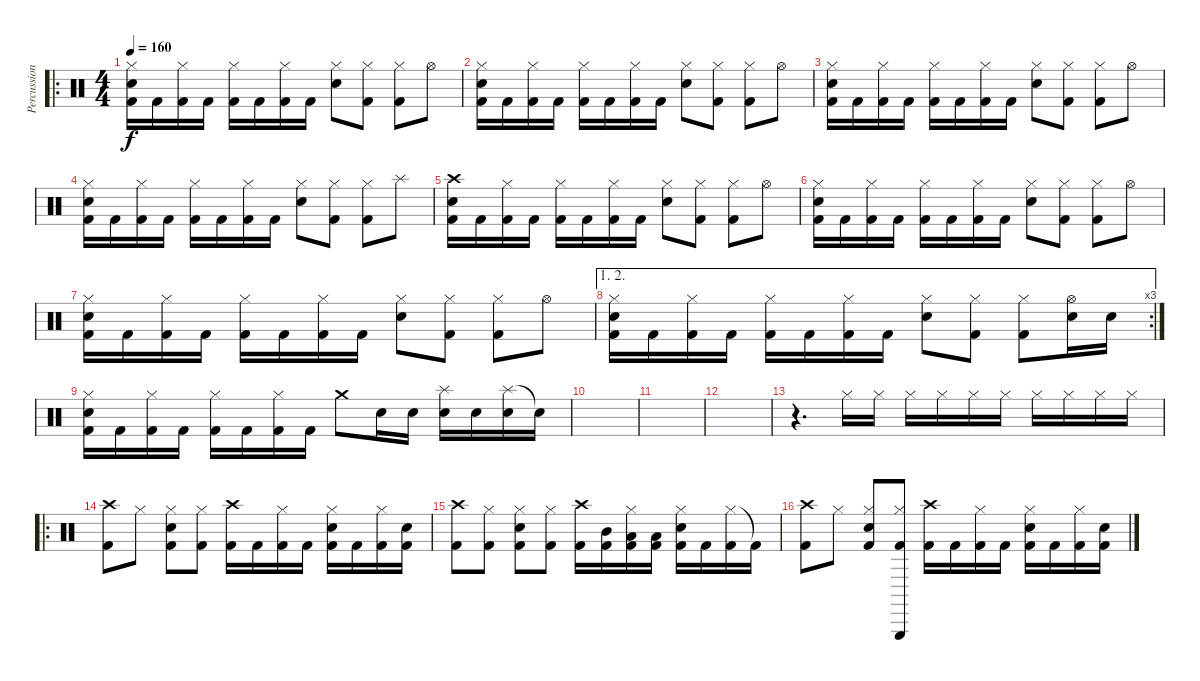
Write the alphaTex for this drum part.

\track ("Percussion" "Percussion") {instrument percussion}
\staff {score}
\articulation defaults
\ro
\ts (4 4)
\tempo 160
\clef neutral
\ks c
("Hi-Hat (closed)" "Electric Snare (hit)" "Kick (hit) 2").16{dy f} "Kick (hit) 2".16 ("Hi-Hat (closed)" "Kick (hit) 2").16 "Kick (hit) 2".16 ("Hi-Hat (closed)" "Kick (hit) 2").16 "Kick (hit) 2".16 ("Hi-Hat (closed)" "Kick (hit) 2").16 "Kick (hit) 2".16 ("Hi-Hat (closed)" "Electric Snare (hit)").8 ("Hi-Hat (closed)" "Kick (hit) 2").8 ("Hi-Hat (closed)" "Kick (hit) 2").8 "Hi-Hat (open)".8 |
("Hi-Hat (closed)" "Electric Snare (hit)" "Kick (hit) 2").16 "Kick (hit) 2".16 ("Hi-Hat (closed)" "Kick (hit) 2").16 "Kick (hit) 2".16 ("Hi-Hat (closed)" "Kick (hit) 2").16 "Kick (hit) 2".16 ("Hi-Hat (closed)" "Kick (hit) 2").16 "Kick (hit) 2".16 ("Hi-Hat (closed)" "Electric Snare (hit)").8 ("Hi-Hat (closed)" "Kick (hit) 2").8 ("Hi-Hat (closed)" "Kick (hit) 2").8 "Hi-Hat (open)".8 |
("Hi-Hat (closed)" "Electric Snare (hit)" "Kick (hit) 2").16 "Kick (hit) 2".16 ("Hi-Hat (closed)" "Kick (hit) 2").16 "Kick (hit) 2".16 ("Hi-Hat (closed)" "Kick (hit) 2").16 "Kick (hit) 2".16 ("Hi-Hat (closed)" "Kick (hit) 2").16 "Kick (hit) 2".16 ("Hi-Hat (closed)" "Electric Snare (hit)").8 ("Hi-Hat (closed)" "Kick (hit) 2").8 ("Hi-Hat (closed)" "Kick (hit) 2").8 "Hi-Hat (open)".8 |
("Hi-Hat (closed)" "Electric Snare (hit)" "Kick (hit) 2").16 "Kick (hit) 2".16 ("Hi-Hat (closed)" "Kick (hit) 2").16 "Kick (hit) 2".16 ("Hi-Hat (closed)" "Kick (hit) 2").16 "Kick (hit) 2".16 ("Hi-Hat (closed)" "Kick (hit) 2").16 "Kick (hit) 2".16 ("Hi-Hat (closed)" "Electric Snare (hit)").8 ("Hi-Hat (closed)" "Kick (hit) 2").8 ("Hi-Hat (closed)" "Kick (hit) 2").8 "Splash (hit)".8 |
("Crash high (hit)" "Electric Snare (hit)" "Kick (hit) 2").16 "Kick (hit) 2".16 ("Hi-Hat (closed)" "Kick (hit) 2").16 "Kick (hit) 2".16 ("Hi-Hat (closed)" "Kick (hit) 2").16 "Kick (hit) 2".16 ("Hi-Hat (closed)" "Kick (hit) 2").16 "Kick (hit) 2".16 ("Hi-Hat (closed)" "Electric Snare (hit)").8 ("Hi-Hat (closed)" "Kick (hit) 2").8 ("Hi-Hat (closed)" "Kick (hit) 2").8 "Hi-Hat (open)".8 |
("Hi-Hat (closed)" "Electric Snare (hit)" "Kick (hit) 2").16 "Kick (hit) 2".16 ("Hi-Hat (closed)" "Kick (hit) 2").16 "Kick (hit) 2".16 ("Hi-Hat (closed)" "Kick (hit) 2").16 "Kick (hit) 2".16 ("Hi-Hat (closed)" "Kick (hit) 2").16 "Kick (hit) 2".16 ("Hi-Hat (closed)" "Electric Snare (hit)").8 ("Hi-Hat (closed)" "Kick (hit) 2").8 ("Hi-Hat (closed)" "Kick (hit) 2").8 "Hi-Hat (open)".8 |
("Hi-Hat (closed)" "Electric Snare (hit)" "Kick (hit) 2").16 "Kick (hit) 2".16 ("Hi-Hat (closed)" "Kick (hit) 2").16 "Kick (hit) 2".16 ("Hi-Hat (closed)" "Kick (hit) 2").16 "Kick (hit) 2".16 ("Hi-Hat (closed)" "Kick (hit) 2").16 "Kick (hit) 2".16 ("Hi-Hat (closed)" "Electric Snare (hit)").8 ("Hi-Hat (closed)" "Kick (hit) 2").8 ("Hi-Hat (closed)" "Kick (hit) 2").8 "Hi-Hat (open)".8 |
\ae (1 2)
\rc 3
("Hi-Hat (closed)" "Electric Snare (hit)" "Kick (hit) 2").16 "Kick (hit) 2".16 ("Hi-Hat (closed)" "Kick (hit) 2").16 "Kick (hit) 2".16 ("Hi-Hat (closed)" "Kick (hit) 2").16 "Kick (hit) 2".16 ("Hi-Hat (closed)" "Kick (hit) 2").16 "Kick (hit) 2".16 ("Hi-Hat (closed)" "Electric Snare (hit)").8 ("Hi-Hat (closed)" "Kick (hit) 2").8 ("Hi-Hat (closed)" "Kick (hit) 2").8 ("Hi-Hat (open)" "Electric Snare (hit)").16 "Electric Snare (hit)".16 |
("Hi-Hat (closed)" "Electric Snare (hit)" "Kick (hit) 2").16 "Kick (hit) 2".16 ("Hi-Hat (closed)" "Kick (hit) 2").16 "Kick (hit) 2".16 ("Hi-Hat (closed)" "Kick (hit) 2").16 "Kick (hit) 2".16 ("Hi-Hat (closed)" "Kick (hit) 2").16 "Kick (hit) 2".16 "Crash medium (hit)".8 "Electric Snare (hit)".16 "Electric Snare (hit)".16 ("Splash (hit)" "Electric Snare (hit)").16 "Electric Snare (hit)".16 ("Splash (hit)" "Electric Snare (hit)").16 "Snare (hit)"{t}.16 |
|
|
|
r.4{d} "Hi-Hat (closed)".16 "Hi-Hat (closed)".16 "Hi-Hat (closed)".16 "Hi-Hat (closed)".16 "Hi-Hat (closed)".16 "Hi-Hat (closed)".16 "Hi-Hat (closed)".16 "Hi-Hat (closed)".16 "Hi-Hat (closed)".16 "Hi-Hat (closed)".16 |
\ro
("Crash high (hit)" "Kick (hit) 2").8 "Hi-Hat (closed)".8 ("Hi-Hat (closed)" "Electric Snare (hit)" "Kick (hit) 2").8 ("Hi-Hat (closed)" "Kick (hit) 2").8 ("Crash high (hit)" "Kick (hit) 2").16 "Kick (hit) 2".16 ("Hi-Hat (closed)" "Kick (hit) 2").16 "Kick (hit) 2".16 ("Hi-Hat (closed)" "Electric Snare (hit)" "Kick (hit) 2").16 "Kick (hit) 2".16 ("Hi-Hat (closed)" "Kick (hit) 2").16 ("Electric Snare (hit)" "Kick (hit) 2").16 |
("Crash high (hit)" "Kick (hit) 2").8 ("Hi-Hat (closed)" "Kick (hit) 2").8 ("Hi-Hat (closed)" "Electric Snare (hit)" "Kick (hit) 2").8 ("Hi-Hat (closed)" "Kick (hit) 2").8 ("Crash high (hit)" "Kick (hit) 2").16 ("Mid Tom (hit)" "Kick (hit) 2").16 ("Hi-Hat (closed)" "Low Tom (hit)" "Kick (hit) 2").16 ("Low Tom (hit)" "Kick (hit) 2").16 ("Hi-Hat (closed)" "Electric Snare (hit)" "Kick (hit) 2").16 "Kick (hit) 2".16 ("Hi-Hat (closed)" "Kick (hit) 2").16 "Kick (hit) 2"{t}.16 |
("Crash high (hit)" "Kick (hit) 2").8 "Hi-Hat (closed)".8 ("Hi-Hat (closed)" "Electric Snare (hit)" "Kick (hit) 2").8 ("Hi-Hat (closed)" "Triangle (hit)" "Kick (hit) 2").8 ("Crash high (hit)" "Kick (hit) 2").16 "Kick (hit) 2".16 ("Hi-Hat (closed)" "Kick (hit) 2").16 "Kick (hit) 2".16 ("Hi-Hat (closed)" "Electric Snare (hit)" "Kick (hit) 2").16 "Kick (hit) 2".16 ("Hi-Hat (closed)" "Kick (hit) 2").16 ("Electric Snare (hit)" "Kick (hit) 2").16
